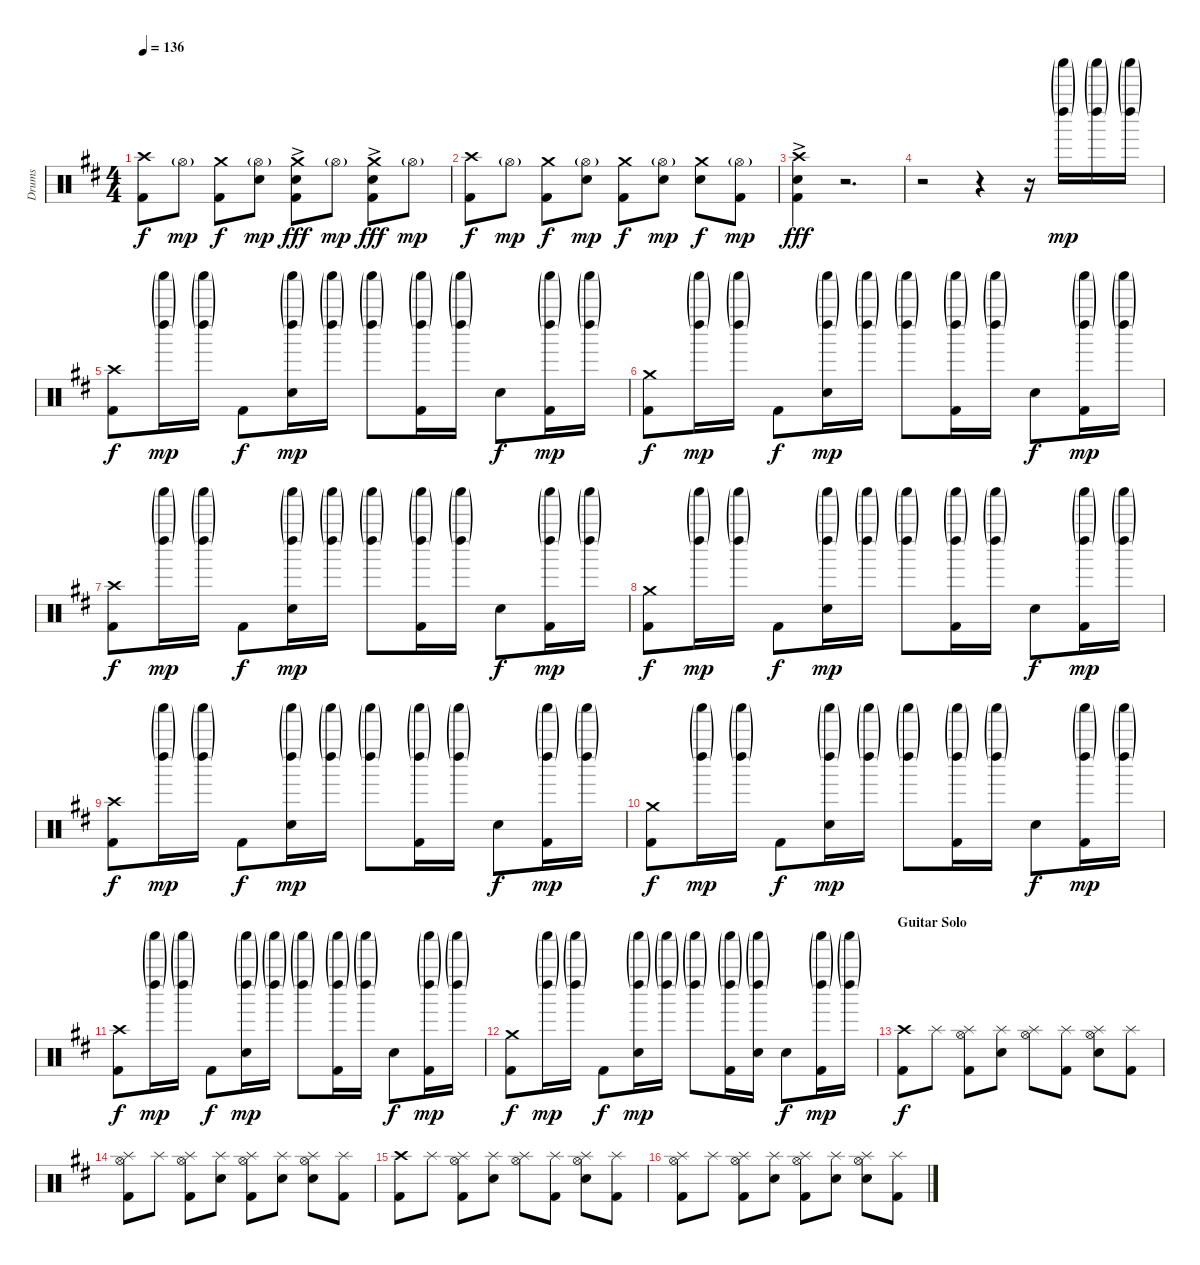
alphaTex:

\track ("Drums" "Drums") {instrument percussion}
\staff {score}
\articulation defaults
\ts (4 4)
\tempo 136
\clef neutral
\ks d
("Crash high (hit)" "Kick (hit) 2").8{dy f} "Hi-Hat (open)"{g}.8{dy mp} ("Crash medium (hit)" "Kick (hit) 2").8{dy f} ("Hi-Hat (open)"{g} "Snare (hit) 2").8{dy mp} ("Crash medium (hit)" "Snare (hit) 2"{ac} "Kick (hit) 2"{ac}).8{dy fff} "Hi-Hat (open)"{g}.8{dy mp} ("Crash medium (hit)" "Snare (hit) 2"{ac} "Kick (hit) 2"{ac}).8{dy fff} "Hi-Hat (open)"{g}.8{dy mp} |
("Crash high (hit)" "Kick (hit) 2").8{dy f} "Hi-Hat (open)"{g}.8{dy mp} ("Crash medium (hit)" "Kick (hit) 2").8{dy f} ("Hi-Hat (open)"{g} "Snare (hit) 2").8{dy mp} ("Crash medium (hit)" "Kick (hit) 2").8{dy f} ("Hi-Hat (open)"{g} "Snare (hit) 2").8{dy mp} ("Crash medium (hit)" "Snare (hit) 2").8{dy f} ("Hi-Hat (open)"{g} "Kick (hit) 2").8{dy mp} |
("Crash high (hit)" "Snare (hit) 2"{ac} "Kick (hit) 2"{ac}).4{dy fff} r.2{d} |
r.2 r.4 r.16 ("Left Maraca (hit)"{g} "Shaker (hit)"{g}).16{dy mp} ("Left Maraca (hit)"{g} "Shaker (hit)"{g}).16 ("Left Maraca (hit)"{g} "Shaker (hit)"{g}).16 |
("Crash high (hit)" "Kick (hit) 2").8{dy f} ("Left Maraca (hit)"{g} "Shaker (hit)"{g}).16{dy mp} ("Left Maraca (hit)"{g} "Shaker (hit)"{g}).16 "Kick (hit) 2".8{dy f} ("Left Maraca (hit)"{g} "Shaker (hit)"{g} "Snare (hit) 2").16{dy mp} ("Left Maraca (hit)"{g} "Shaker (hit)"{g}).16 ("Left Maraca (hit)"{g} "Shaker (hit)"{g}).8 ("Left Maraca (hit)"{g} "Shaker (hit)"{g} "Kick (hit) 2").16 ("Left Maraca (hit)"{g} "Shaker (hit)"{g}).16 "Snare (hit) 2".8{dy f} ("Left Maraca (hit)"{g} "Shaker (hit)"{g} "Kick (hit) 2").16{dy mp} ("Left Maraca (hit)"{g} "Shaker (hit)"{g}).16 |
("Crash medium (hit)" "Kick (hit) 2").8{dy f} ("Left Maraca (hit)"{g} "Shaker (hit)"{g}).16{dy mp} ("Left Maraca (hit)"{g} "Shaker (hit)"{g}).16 "Kick (hit) 2".8{dy f} ("Left Maraca (hit)"{g} "Shaker (hit)"{g} "Snare (hit) 2").16{dy mp} ("Left Maraca (hit)"{g} "Shaker (hit)"{g}).16 ("Left Maraca (hit)"{g} "Shaker (hit)"{g}).8 ("Left Maraca (hit)"{g} "Shaker (hit)"{g} "Kick (hit) 2").16 ("Left Maraca (hit)"{g} "Shaker (hit)"{g}).16 "Snare (hit) 2".8{dy f} ("Left Maraca (hit)"{g} "Shaker (hit)"{g} "Kick (hit) 2").16{dy mp} ("Left Maraca (hit)"{g} "Shaker (hit)"{g}).16 |
("Crash high (hit)" "Kick (hit) 2").8{dy f} ("Left Maraca (hit)"{g} "Shaker (hit)"{g}).16{dy mp} ("Left Maraca (hit)"{g} "Shaker (hit)"{g}).16 "Kick (hit) 2".8{dy f} ("Left Maraca (hit)"{g} "Shaker (hit)"{g} "Snare (hit) 2").16{dy mp} ("Left Maraca (hit)"{g} "Shaker (hit)"{g}).16 ("Left Maraca (hit)"{g} "Shaker (hit)"{g}).8 ("Left Maraca (hit)"{g} "Shaker (hit)"{g} "Kick (hit) 2").16 ("Left Maraca (hit)"{g} "Shaker (hit)"{g}).16 "Snare (hit) 2".8{dy f} ("Left Maraca (hit)"{g} "Shaker (hit)"{g} "Kick (hit) 2").16{dy mp} ("Left Maraca (hit)"{g} "Shaker (hit)"{g}).16 |
("Crash medium (hit)" "Kick (hit) 2").8{dy f} ("Left Maraca (hit)"{g} "Shaker (hit)"{g}).16{dy mp} ("Left Maraca (hit)"{g} "Shaker (hit)"{g}).16 "Kick (hit) 2".8{dy f} ("Left Maraca (hit)"{g} "Shaker (hit)"{g} "Snare (hit) 2").16{dy mp} ("Left Maraca (hit)"{g} "Shaker (hit)"{g}).16 ("Left Maraca (hit)"{g} "Shaker (hit)"{g}).8 ("Left Maraca (hit)"{g} "Shaker (hit)"{g} "Kick (hit) 2").16 ("Left Maraca (hit)"{g} "Shaker (hit)"{g}).16 "Snare (hit) 2".8{dy f} ("Left Maraca (hit)"{g} "Shaker (hit)"{g} "Kick (hit) 2").16{dy mp} ("Left Maraca (hit)"{g} "Shaker (hit)"{g}).16 |
("Crash high (hit)" "Kick (hit) 2").8{dy f} ("Left Maraca (hit)"{g} "Shaker (hit)"{g}).16{dy mp} ("Left Maraca (hit)"{g} "Shaker (hit)"{g}).16 "Kick (hit) 2".8{dy f} ("Left Maraca (hit)"{g} "Shaker (hit)"{g} "Snare (hit) 2").16{dy mp} ("Left Maraca (hit)"{g} "Shaker (hit)"{g}).16 ("Left Maraca (hit)"{g} "Shaker (hit)"{g}).8 ("Left Maraca (hit)"{g} "Shaker (hit)"{g} "Kick (hit) 2").16 ("Left Maraca (hit)"{g} "Shaker (hit)"{g}).16 "Snare (hit) 2".8{dy f} ("Left Maraca (hit)"{g} "Shaker (hit)"{g} "Kick (hit) 2").16{dy mp} ("Left Maraca (hit)"{g} "Shaker (hit)"{g}).16 |
("Crash medium (hit)" "Kick (hit) 2").8{dy f} ("Left Maraca (hit)"{g} "Shaker (hit)"{g}).16{dy mp} ("Left Maraca (hit)"{g} "Shaker (hit)"{g}).16 "Kick (hit) 2".8{dy f} ("Left Maraca (hit)"{g} "Shaker (hit)"{g} "Snare (hit) 2").16{dy mp} ("Left Maraca (hit)"{g} "Shaker (hit)"{g}).16 ("Left Maraca (hit)"{g} "Shaker (hit)"{g}).8 ("Left Maraca (hit)"{g} "Shaker (hit)"{g} "Kick (hit) 2").16 ("Left Maraca (hit)"{g} "Shaker (hit)"{g}).16 "Snare (hit) 2".8{dy f} ("Left Maraca (hit)"{g} "Shaker (hit)"{g} "Kick (hit) 2").16{dy mp} ("Left Maraca (hit)"{g} "Shaker (hit)"{g}).16 |
("Crash high (hit)" "Kick (hit) 2").8{dy f} ("Left Maraca (hit)"{g} "Shaker (hit)"{g}).16{dy mp} ("Left Maraca (hit)"{g} "Shaker (hit)"{g}).16 "Kick (hit) 2".8{dy f} ("Left Maraca (hit)"{g} "Shaker (hit)"{g} "Snare (hit) 2").16{dy mp} ("Left Maraca (hit)"{g} "Shaker (hit)"{g}).16 ("Left Maraca (hit)"{g} "Shaker (hit)"{g}).8 ("Left Maraca (hit)"{g} "Shaker (hit)"{g} "Kick (hit) 2").16 ("Left Maraca (hit)"{g} "Shaker (hit)"{g}).16 "Snare (hit) 2".8{dy f} ("Left Maraca (hit)"{g} "Shaker (hit)"{g} "Kick (hit) 2").16{dy mp} ("Left Maraca (hit)"{g} "Shaker (hit)"{g}).16 |
("Crash medium (hit)" "Kick (hit) 2").8{dy f} ("Left Maraca (hit)"{g} "Shaker (hit)"{g}).16{dy mp} ("Left Maraca (hit)"{g} "Shaker (hit)"{g}).16 "Kick (hit) 2".8{dy f} ("Left Maraca (hit)"{g} "Shaker (hit)"{g} "Snare (hit) 2").16{dy mp} ("Left Maraca (hit)"{g} "Shaker (hit)"{g}).16 ("Left Maraca (hit)"{g} "Shaker (hit)"{g}).8 ("Left Maraca (hit)"{g} "Shaker (hit)"{g} "Kick (hit) 2").16 ("Left Maraca (hit)"{g} "Shaker (hit)"{g} "Snare (hit) 2").16 "Snare (hit) 2".8{dy f} ("Left Maraca (hit)"{g} "Shaker (hit)"{g} "Kick (hit) 2").16{dy mp} ("Left Maraca (hit)"{g} "Shaker (hit)"{g}).16 |
\section ("" "Guitar Solo")
("Crash high (hit)" "Kick (hit) 2").8{dy f} "Splash (hit)".8 ("Hi-Hat (open)" "Splash (hit)" "Kick (hit) 2").8 ("Splash (hit)" "Snare (hit) 2").8 ("Hi-Hat (open)" "Splash (hit)").8 ("Splash (hit)" "Kick (hit) 2").8 ("Hi-Hat (open)" "Splash (hit)" "Snare (hit) 2").8 ("Splash (hit)" "Kick (hit) 2").8 |
("Hi-Hat (open)" "Splash (hit)" "Kick (hit) 2").8 "Splash (hit)".8 ("Hi-Hat (open)" "Splash (hit)" "Kick (hit) 2").8 ("Splash (hit)" "Snare (hit) 2").8 ("Hi-Hat (open)" "Splash (hit)" "Kick (hit) 2").8 ("Splash (hit)" "Snare (hit) 2").8 ("Hi-Hat (open)" "Splash (hit)" "Snare (hit) 2").8 ("Splash (hit)" "Kick (hit) 2").8 |
("Crash high (hit)" "Kick (hit) 2").8 "Splash (hit)".8 ("Hi-Hat (open)" "Splash (hit)" "Kick (hit) 2").8 ("Splash (hit)" "Snare (hit) 2").8 ("Hi-Hat (open)" "Splash (hit)").8 ("Splash (hit)" "Kick (hit) 2").8 ("Hi-Hat (open)" "Splash (hit)" "Snare (hit) 2").8 ("Splash (hit)" "Kick (hit) 2").8 |
("Hi-Hat (open)" "Splash (hit)" "Kick (hit) 2").8 "Splash (hit)".8 ("Hi-Hat (open)" "Splash (hit)" "Kick (hit) 2").8 ("Splash (hit)" "Snare (hit) 2").8 ("Hi-Hat (open)" "Splash (hit)" "Kick (hit) 2").8 ("Splash (hit)" "Snare (hit) 2").8 ("Hi-Hat (open)" "Splash (hit)" "Snare (hit) 2").8 ("Splash (hit)" "Kick (hit) 2").8
